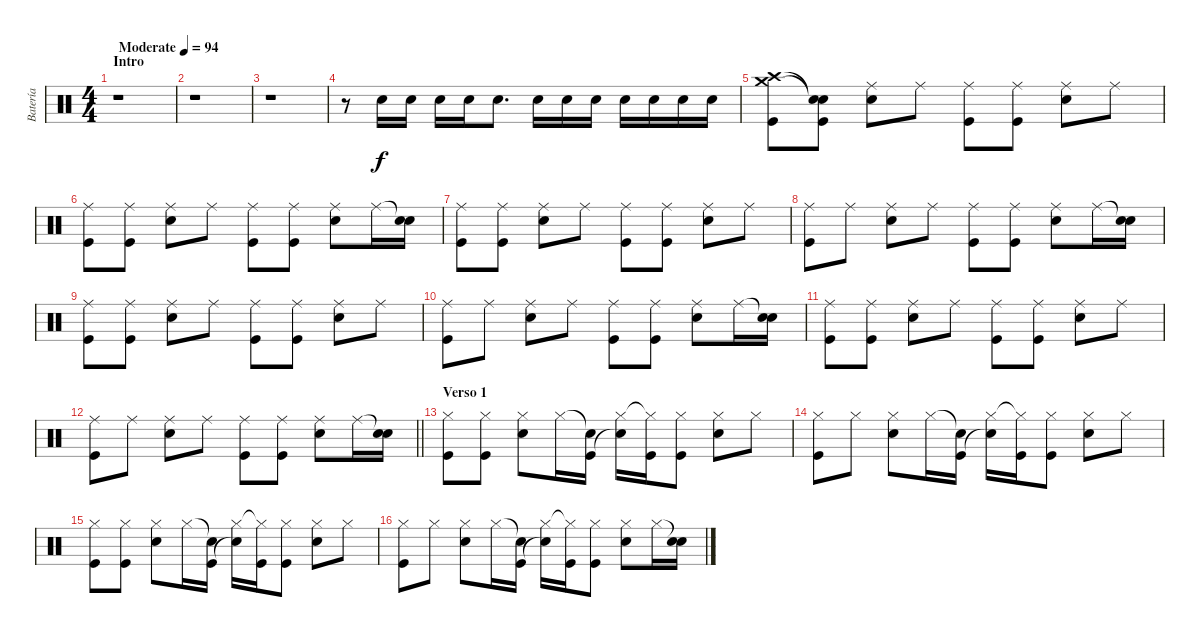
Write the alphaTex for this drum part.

\track ("Batería" "Batería") {instrument percussion}
\staff {score}
\articulation defaults
\ts (4 4)
\section ("" "Intro")
\tempo (94 "Moderate")
\clef neutral
\ks c
r.1{dy f} |
r.1 |
r.1 |
r.8 "Snare (hit) 2".16 "Snare (hit) 2".16 "Snare (hit) 2".16 "Snare (hit) 2".16 "Snare (hit) 2".8{d} "Snare (hit) 2".16 "Snare (hit) 2".16 "Snare (hit) 2".16 "Snare (hit) 2".16 "Snare (hit) 2".16 "Snare (hit) 2".16 "Snare (hit) 2".16 |
("Crash high (hit)" "Crash medium (hit)" "Kick (hit)").8 ("Snare (hit)"{t} "Snare (hit)"{t} "Kick (hit)").8 ("Ride (middle)" "Snare (hit) 2").8 "Ride (middle)".8 ("Ride (middle)" "Kick (hit)").8 ("Ride (middle)" "Kick (hit)").8 ("Ride (middle)" "Snare (hit) 2").8 "Ride (middle)".8 |
("Ride (middle)" "Kick (hit)").8 ("Ride (middle)" "Kick (hit)").8 ("Ride (middle)" "Snare (hit) 2").8 "Ride (middle)".8 ("Ride (middle)" "Kick (hit)").8 ("Ride (middle)" "Kick (hit)").8 ("Ride (middle)" "Snare (hit) 2").8 "Ride (middle)".16 ("Snare (hit)"{t} "Snare (hit) 2").16 |
("Ride (middle)" "Kick (hit)").8 ("Ride (middle)" "Kick (hit)").8 ("Ride (middle)" "Snare (hit) 2").8 "Ride (middle)".8 ("Ride (middle)" "Kick (hit)").8 ("Ride (middle)" "Kick (hit)").8 ("Ride (middle)" "Snare (hit) 2").8 "Ride (middle)".8 |
("Ride (middle)" "Kick (hit)").8 "Ride (middle)".8 ("Ride (middle)" "Snare (hit) 2").8 "Ride (middle)".8 ("Ride (middle)" "Kick (hit)").8 ("Ride (middle)" "Kick (hit)").8 ("Ride (middle)" "Snare (hit) 2").8 "Ride (middle)".16 ("Snare (hit)"{t} "Snare (hit) 2").16 |
("Ride (middle)" "Kick (hit)").8 ("Ride (middle)" "Kick (hit)").8 ("Ride (middle)" "Snare (hit) 2").8 "Ride (middle)".8 ("Ride (middle)" "Kick (hit)").8 ("Ride (middle)" "Kick (hit)").8 ("Ride (middle)" "Snare (hit) 2").8 "Ride (middle)".8 |
("Ride (middle)" "Kick (hit)").8 "Ride (middle)".8 ("Ride (middle)" "Snare (hit) 2").8 "Ride (middle)".8 ("Ride (middle)" "Kick (hit)").8 ("Ride (middle)" "Kick (hit)").8 ("Ride (middle)" "Snare (hit) 2").8 "Ride (middle)".16 ("Snare (hit)"{t} "Snare (hit) 2").16 |
("Ride (middle)" "Kick (hit)").8 ("Ride (middle)" "Kick (hit)").8 ("Ride (middle)" "Snare (hit) 2").8 "Ride (middle)".8 ("Ride (middle)" "Kick (hit)").8 ("Ride (middle)" "Kick (hit)").8 ("Ride (middle)" "Snare (hit) 2").8 "Ride (middle)".8 |
\barLineRight lightlight
("Ride (middle)" "Kick (hit)").8 "Ride (middle)".8 ("Ride (middle)" "Snare (hit) 2").8 "Ride (middle)".8 ("Ride (middle)" "Kick (hit)").8 ("Ride (middle)" "Kick (hit)").8 ("Ride (middle)" "Snare (hit) 2").8 "Ride (middle)".16 ("Snare (hit)"{t} "Snare (hit) 2").16 |
\section ("" "Verso 1")
("Hi-Hat (closed)" "Kick (hit)").8 ("Hi-Hat (closed)" "Kick (hit)").8 ("Hi-Hat (closed)" "Snare (hit) 2").8 "Hi-Hat (closed)".16 ("Snare (hit)"{t} "Kick (hit)").16 ("Hi-Hat (closed)" "Snare (hit)"{t}).16 ("Hi-Hat (closed)"{t} "Kick (hit)").16 ("Hi-Hat (closed)" "Kick (hit)").8 ("Hi-Hat (closed)" "Snare (hit) 2").8 "Hi-Hat (closed)".8 |
("Hi-Hat (closed)" "Kick (hit)").8 "Hi-Hat (closed)".8 ("Hi-Hat (closed)" "Snare (hit) 2").8 "Hi-Hat (closed)".16 ("Snare (hit)"{t} "Kick (hit)").16 ("Hi-Hat (closed)" "Snare (hit)"{t}).16 ("Hi-Hat (closed)"{t} "Kick (hit)").16 ("Hi-Hat (closed)" "Kick (hit)").8 ("Hi-Hat (closed)" "Snare (hit) 2").8 "Hi-Hat (closed)".8 |
("Hi-Hat (closed)" "Kick (hit)").8 ("Hi-Hat (closed)" "Kick (hit)").8 ("Hi-Hat (closed)" "Snare (hit) 2").8 "Hi-Hat (closed)".16 ("Snare (hit)"{t} "Kick (hit)").16 ("Hi-Hat (closed)" "Snare (hit)"{t}).16 ("Hi-Hat (closed)"{t} "Kick (hit)").16 ("Hi-Hat (closed)" "Kick (hit)").8 ("Hi-Hat (closed)" "Snare (hit) 2").8 "Hi-Hat (closed)".8 |
("Hi-Hat (closed)" "Kick (hit)").8 "Hi-Hat (closed)".8 ("Hi-Hat (closed)" "Snare (hit) 2").8 "Hi-Hat (closed)".16 ("Snare (hit)"{t} "Kick (hit)").16 ("Hi-Hat (closed)" "Snare (hit)"{t}).16 ("Hi-Hat (closed)"{t} "Kick (hit)").16 ("Hi-Hat (closed)" "Kick (hit)").8 ("Hi-Hat (closed)" "Snare (hit) 2").8 "Hi-Hat (closed)".16 ("Snare (hit)"{t} "Snare (hit) 2").16
